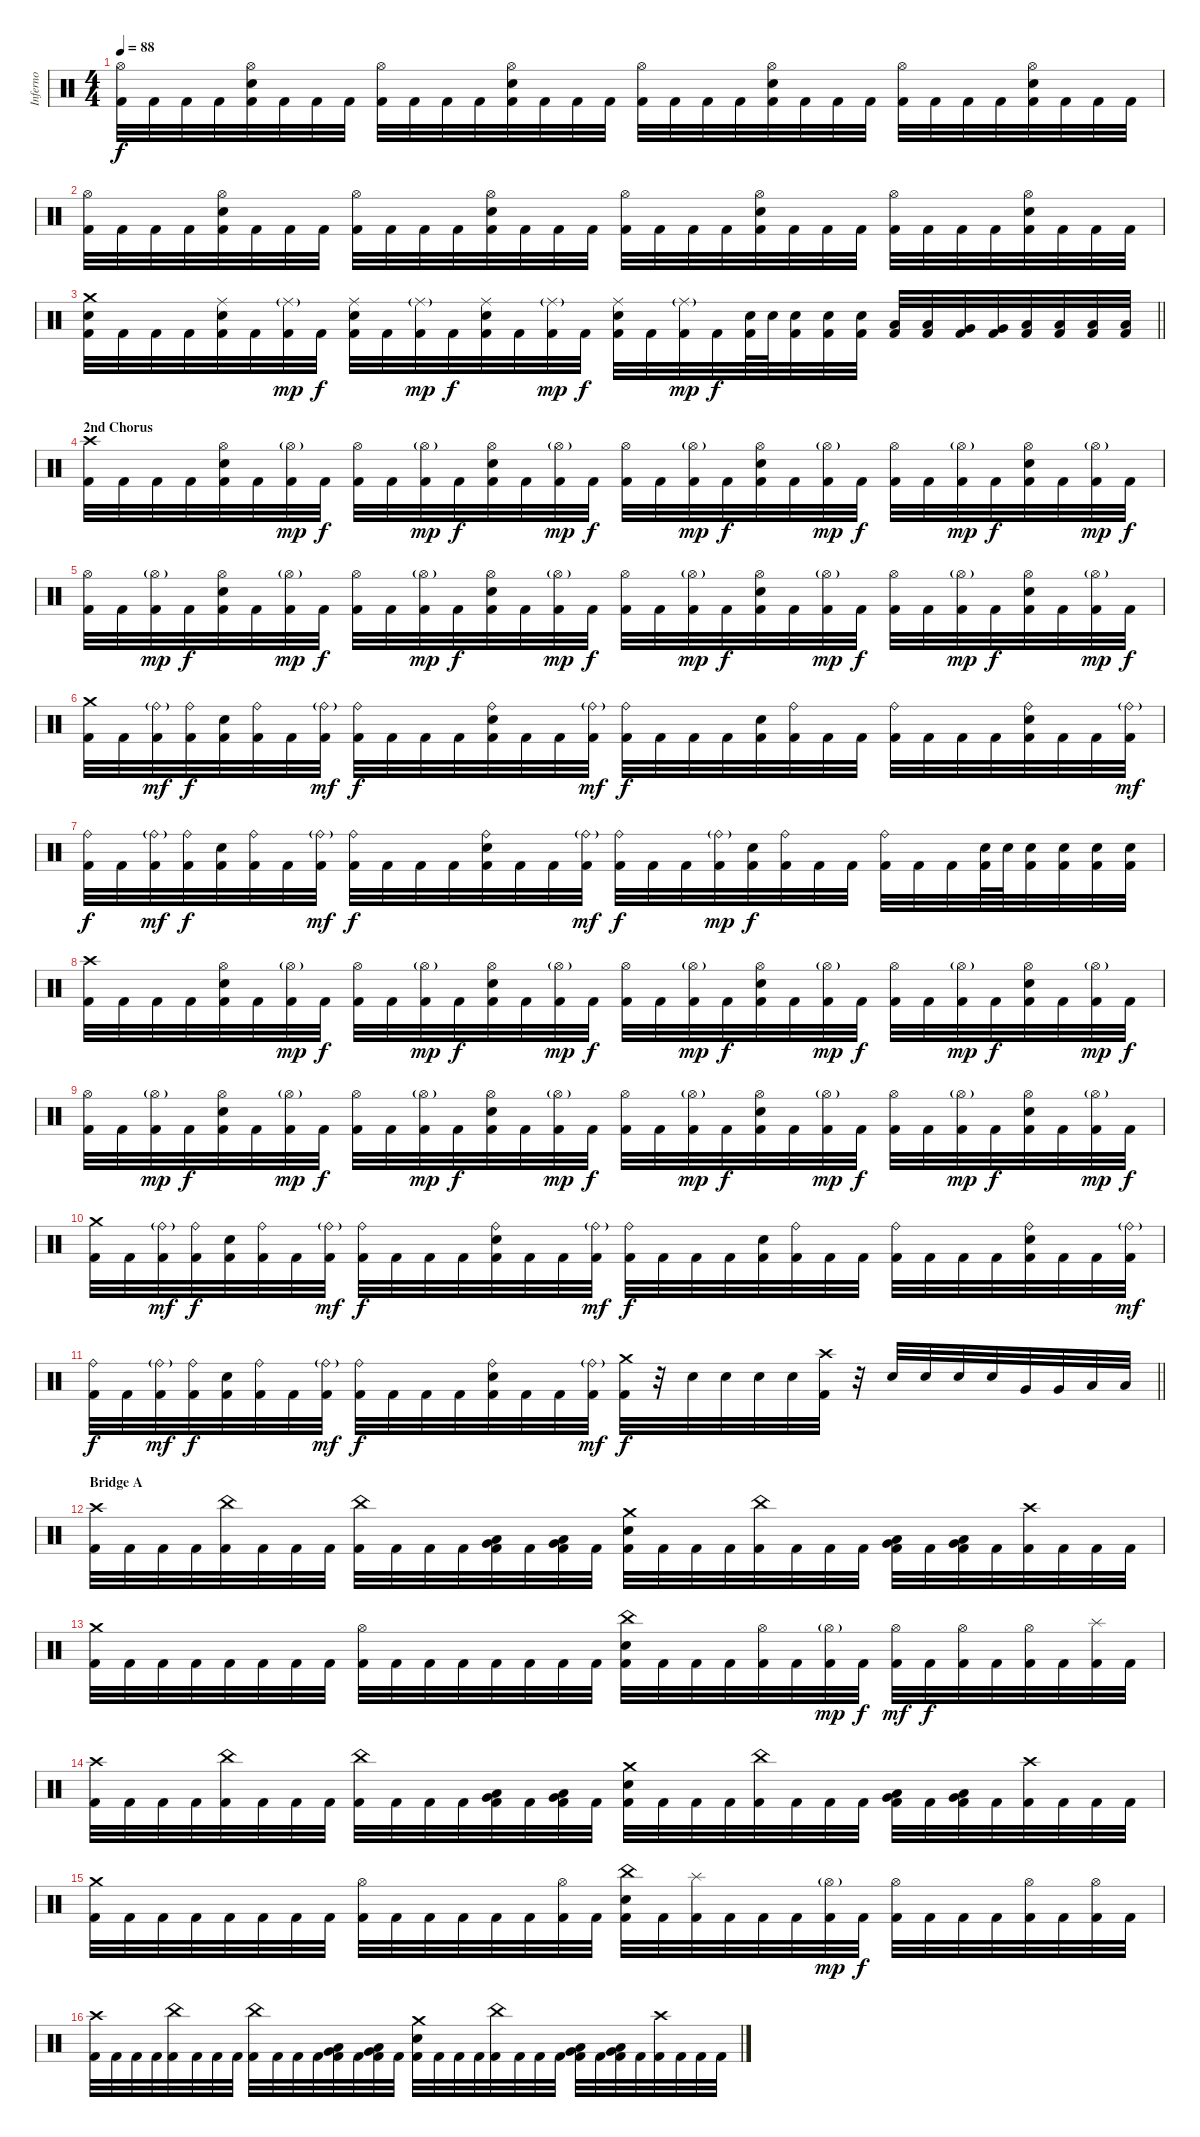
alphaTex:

\track ("Inferno" "Inferno") {instrument percussion}
\staff {score}
\articulation defaults
\ts (4 4)
\tempo 88
\clef neutral
\ks c
("Hi-Hat (open)" "Kick (hit) 2").32{dy f} "Kick (hit) 2".32 "Kick (hit) 2".32 "Kick (hit) 2".32 ("Hi-Hat (open)" "Snare (hit) 2" "Kick (hit) 2").32 "Kick (hit) 2".32 "Kick (hit) 2".32 "Kick (hit) 2".32 ("Hi-Hat (open)" "Kick (hit) 2").32 "Kick (hit) 2".32 "Kick (hit) 2".32 "Kick (hit) 2".32 ("Hi-Hat (open)" "Snare (hit) 2" "Kick (hit) 2").32 "Kick (hit) 2".32 "Kick (hit) 2".32 "Kick (hit) 2".32 ("Hi-Hat (open)" "Kick (hit) 2").32 "Kick (hit) 2".32 "Kick (hit) 2".32 "Kick (hit) 2".32 ("Hi-Hat (open)" "Snare (hit) 2" "Kick (hit) 2").32 "Kick (hit) 2".32 "Kick (hit) 2".32 "Kick (hit) 2".32 ("Hi-Hat (open)" "Kick (hit) 2").32 "Kick (hit) 2".32 "Kick (hit) 2".32 "Kick (hit) 2".32 ("Hi-Hat (open)" "Snare (hit) 2" "Kick (hit) 2").32 "Kick (hit) 2".32 "Kick (hit) 2".32 "Kick (hit) 2".32 |
("Hi-Hat (open)" "Kick (hit) 2").32 "Kick (hit) 2".32 "Kick (hit) 2".32 "Kick (hit) 2".32 ("Hi-Hat (open)" "Snare (hit) 2" "Kick (hit) 2").32 "Kick (hit) 2".32 "Kick (hit) 2".32 "Kick (hit) 2".32 ("Hi-Hat (open)" "Kick (hit) 2").32 "Kick (hit) 2".32 "Kick (hit) 2".32 "Kick (hit) 2".32 ("Hi-Hat (open)" "Snare (hit) 2" "Kick (hit) 2").32 "Kick (hit) 2".32 "Kick (hit) 2".32 "Kick (hit) 2".32 ("Hi-Hat (open)" "Kick (hit) 2").32 "Kick (hit) 2".32 "Kick (hit) 2".32 "Kick (hit) 2".32 ("Hi-Hat (open)" "Snare (hit) 2" "Kick (hit) 2").32 "Kick (hit) 2".32 "Kick (hit) 2".32 "Kick (hit) 2".32 ("Hi-Hat (open)" "Kick (hit) 2").32 "Kick (hit) 2".32 "Kick (hit) 2".32 "Kick (hit) 2".32 ("Hi-Hat (open)" "Snare (hit) 2" "Kick (hit) 2").32 "Kick (hit) 2".32 "Kick (hit) 2".32 "Kick (hit) 2".32 |
\barLineRight lightlight
("Crash medium (hit)" "Snare (hit) 2" "Kick (hit) 2").32 "Kick (hit) 2".32 "Kick (hit) 2".32 "Kick (hit) 2".32 ("Ride (middle)" "Snare (hit) 2" "Kick (hit) 2").32 "Kick (hit) 2".32 ("Ride (middle)"{g} "Kick (hit) 2").32{dy mp} "Kick (hit) 2".32{dy f} ("Ride (middle)" "Snare (hit) 2" "Kick (hit) 2").32 "Kick (hit) 2".32 ("Ride (middle)"{g} "Kick (hit) 2").32{dy mp} "Kick (hit) 2".32{dy f} ("Ride (middle)" "Snare (hit) 2" "Kick (hit) 2").32 "Kick (hit) 2".32 ("Ride (middle)"{g} "Kick (hit) 2").32{dy mp} "Kick (hit) 2".32{dy f} ("Ride (middle)" "Snare (hit) 2" "Kick (hit) 2").32 "Kick (hit) 2".32 ("Ride (middle)"{g} "Kick (hit) 2").32{dy mp} "Kick (hit) 2".32{dy f} ("Snare (hit) 2" "Kick (hit) 2").64 "Snare (hit) 2".64 ("Snare (hit) 2" "Kick (hit) 2").32 ("Snare (hit) 2" "Kick (hit) 2").32 ("Snare (hit) 2" "Kick (hit) 2").32 ("Low Tom (hit)" "Kick (hit) 2").32 ("Low Tom (hit)" "Kick (hit) 2").32 ("Very Low Tom (hit)" "Kick (hit) 2").32 ("Very Low Tom (hit)" "Kick (hit) 2").32 ("Low Floor Tom (hit)" "Kick (hit) 2").32 ("Low Floor Tom (hit)" "Kick (hit) 2").32 ("Low Floor Tom (hit)" "Kick (hit) 2").32 ("Low Floor Tom (hit)" "Kick (hit) 2").32 |
\section ("" "2nd Chorus")
("Crash high (hit)" "Kick (hit) 2").32 "Kick (hit) 2".32 "Kick (hit) 2".32 "Kick (hit) 2".32 ("Hi-Hat (open)" "Snare (hit) 2" "Kick (hit) 2").32 "Kick (hit) 2".32 ("Hi-Hat (open)"{g} "Kick (hit) 2").32{dy mp} "Kick (hit) 2".32{dy f} ("Hi-Hat (open)" "Kick (hit) 2").32 "Kick (hit) 2".32 ("Hi-Hat (open)"{g} "Kick (hit) 2").32{dy mp} "Kick (hit) 2".32{dy f} ("Hi-Hat (open)" "Snare (hit) 2" "Kick (hit) 2").32 "Kick (hit) 2".32 ("Hi-Hat (open)"{g} "Kick (hit) 2").32{dy mp} "Kick (hit) 2".32{dy f} ("Hi-Hat (open)" "Kick (hit) 2").32 "Kick (hit) 2".32 ("Hi-Hat (open)"{g} "Kick (hit) 2").32{dy mp} "Kick (hit) 2".32{dy f} ("Hi-Hat (open)" "Snare (hit) 2" "Kick (hit) 2").32 "Kick (hit) 2".32 ("Hi-Hat (open)"{g} "Kick (hit) 2").32{dy mp} "Kick (hit) 2".32{dy f} ("Hi-Hat (open)" "Kick (hit) 2").32 "Kick (hit) 2".32 ("Hi-Hat (open)"{g} "Kick (hit) 2").32{dy mp} "Kick (hit) 2".32{dy f} ("Hi-Hat (open)" "Snare (hit) 2" "Kick (hit) 2").32 "Kick (hit) 2".32 ("Hi-Hat (open)"{g} "Kick (hit) 2").32{dy mp} "Kick (hit) 2".32{dy f} |
("Hi-Hat (open)" "Kick (hit) 2").32 "Kick (hit) 2".32 ("Hi-Hat (open)"{g} "Kick (hit) 2").32{dy mp} "Kick (hit) 2".32{dy f} ("Hi-Hat (open)" "Snare (hit) 2" "Kick (hit) 2").32 "Kick (hit) 2".32 ("Hi-Hat (open)"{g} "Kick (hit) 2").32{dy mp} "Kick (hit) 2".32{dy f} ("Hi-Hat (open)" "Kick (hit) 2").32 "Kick (hit) 2".32 ("Hi-Hat (open)"{g} "Kick (hit) 2").32{dy mp} "Kick (hit) 2".32{dy f} ("Hi-Hat (open)" "Snare (hit) 2" "Kick (hit) 2").32 "Kick (hit) 2".32 ("Hi-Hat (open)"{g} "Kick (hit) 2").32{dy mp} "Kick (hit) 2".32{dy f} ("Hi-Hat (open)" "Kick (hit) 2").32 "Kick (hit) 2".32 ("Hi-Hat (open)"{g} "Kick (hit) 2").32{dy mp} "Kick (hit) 2".32{dy f} ("Hi-Hat (open)" "Snare (hit) 2" "Kick (hit) 2").32 "Kick (hit) 2".32 ("Hi-Hat (open)"{g} "Kick (hit) 2").32{dy mp} "Kick (hit) 2".32{dy f} ("Hi-Hat (open)" "Kick (hit) 2").32 "Kick (hit) 2".32 ("Hi-Hat (open)"{g} "Kick (hit) 2").32{dy mp} "Kick (hit) 2".32{dy f} ("Hi-Hat (open)" "Snare (hit) 2" "Kick (hit) 2").32 "Kick (hit) 2".32 ("Hi-Hat (open)"{g} "Kick (hit) 2").32{dy mp} "Kick (hit) 2".32{dy f} |
("Crash medium (hit)" "Kick (hit) 2").32 "Kick (hit) 2".32 ("Ride (bell)"{g} "Kick (hit) 2").32{dy mf} ("Ride (bell)" "Kick (hit) 2").32{dy f} ("Snare (hit) 2" "Kick (hit) 2").32 ("Ride (bell)" "Kick (hit) 2").32 "Kick (hit) 2".32 ("Ride (bell)"{g} "Kick (hit) 2").32{dy mf} ("Ride (bell)" "Kick (hit) 2").32{dy f} "Kick (hit) 2".32 "Kick (hit) 2".32 "Kick (hit) 2".32 ("Ride (bell)" "Snare (hit) 2" "Kick (hit) 2").32 "Kick (hit) 2".32 "Kick (hit) 2".32 ("Ride (bell)"{g} "Kick (hit) 2").32{dy mf} ("Ride (bell)" "Kick (hit) 2").32{dy f} "Kick (hit) 2".32 "Kick (hit) 2".32 "Kick (hit) 2".32 ("Snare (hit) 2" "Kick (hit) 2").32 ("Ride (bell)" "Kick (hit) 2").32 "Kick (hit) 2".32 "Kick (hit) 2".32 ("Ride (bell)" "Kick (hit) 2").32 "Kick (hit) 2".32 "Kick (hit) 2".32 "Kick (hit) 2".32 ("Ride (bell)" "Snare (hit) 2" "Kick (hit) 2").32 "Kick (hit) 2".32 "Kick (hit) 2".32 ("Ride (bell)"{g} "Kick (hit) 2").32{dy mf} |
("Ride (bell)" "Kick (hit) 2").32{dy f} "Kick (hit) 2".32 ("Ride (bell)"{g} "Kick (hit) 2").32{dy mf} ("Ride (bell)" "Kick (hit) 2").32{dy f} ("Snare (hit) 2" "Kick (hit) 2").32 ("Ride (bell)" "Kick (hit) 2").32 "Kick (hit) 2".32 ("Ride (bell)"{g} "Kick (hit) 2").32{dy mf} ("Ride (bell)" "Kick (hit) 2").32{dy f} "Kick (hit) 2".32 "Kick (hit) 2".32 "Kick (hit) 2".32 ("Ride (bell)" "Snare (hit) 2" "Kick (hit) 2").32 "Kick (hit) 2".32 "Kick (hit) 2".32 ("Ride (bell)"{g} "Kick (hit) 2").32{dy mf} ("Ride (bell)" "Kick (hit) 2").32{dy f} "Kick (hit) 2".32 "Kick (hit) 2".32 ("Ride (bell)"{g} "Kick (hit) 2").32{dy mp} ("Snare (hit) 2" "Kick (hit) 2").32{dy f} ("Ride (bell)" "Kick (hit) 2").32 "Kick (hit) 2".32 "Kick (hit) 2".32 ("Ride (bell)" "Kick (hit) 2").32 "Kick (hit) 2".32 "Kick (hit) 2".32 ("Snare (hit) 2" "Kick (hit) 2").64 "Snare (hit) 2".64 ("Snare (hit) 2" "Kick (hit) 2").32 ("Snare (hit) 2" "Kick (hit) 2").32 ("Snare (hit) 2" "Kick (hit) 2").32 ("Snare (hit) 2" "Kick (hit) 2").32 |
("Crash high (hit)" "Kick (hit) 2").32 "Kick (hit) 2".32 "Kick (hit) 2".32 "Kick (hit) 2".32 ("Hi-Hat (open)" "Snare (hit) 2" "Kick (hit) 2").32 "Kick (hit) 2".32 ("Hi-Hat (open)"{g} "Kick (hit) 2").32{dy mp} "Kick (hit) 2".32{dy f} ("Hi-Hat (open)" "Kick (hit) 2").32 "Kick (hit) 2".32 ("Hi-Hat (open)"{g} "Kick (hit) 2").32{dy mp} "Kick (hit) 2".32{dy f} ("Hi-Hat (open)" "Snare (hit) 2" "Kick (hit) 2").32 "Kick (hit) 2".32 ("Hi-Hat (open)"{g} "Kick (hit) 2").32{dy mp} "Kick (hit) 2".32{dy f} ("Hi-Hat (open)" "Kick (hit) 2").32 "Kick (hit) 2".32 ("Hi-Hat (open)"{g} "Kick (hit) 2").32{dy mp} "Kick (hit) 2".32{dy f} ("Hi-Hat (open)" "Snare (hit) 2" "Kick (hit) 2").32 "Kick (hit) 2".32 ("Hi-Hat (open)"{g} "Kick (hit) 2").32{dy mp} "Kick (hit) 2".32{dy f} ("Hi-Hat (open)" "Kick (hit) 2").32 "Kick (hit) 2".32 ("Hi-Hat (open)"{g} "Kick (hit) 2").32{dy mp} "Kick (hit) 2".32{dy f} ("Hi-Hat (open)" "Snare (hit) 2" "Kick (hit) 2").32 "Kick (hit) 2".32 ("Hi-Hat (open)"{g} "Kick (hit) 2").32{dy mp} "Kick (hit) 2".32{dy f} |
("Hi-Hat (open)" "Kick (hit) 2").32 "Kick (hit) 2".32 ("Hi-Hat (open)"{g} "Kick (hit) 2").32{dy mp} "Kick (hit) 2".32{dy f} ("Hi-Hat (open)" "Snare (hit) 2" "Kick (hit) 2").32 "Kick (hit) 2".32 ("Hi-Hat (open)"{g} "Kick (hit) 2").32{dy mp} "Kick (hit) 2".32{dy f} ("Hi-Hat (open)" "Kick (hit) 2").32 "Kick (hit) 2".32 ("Hi-Hat (open)"{g} "Kick (hit) 2").32{dy mp} "Kick (hit) 2".32{dy f} ("Hi-Hat (open)" "Snare (hit) 2" "Kick (hit) 2").32 "Kick (hit) 2".32 ("Hi-Hat (open)"{g} "Kick (hit) 2").32{dy mp} "Kick (hit) 2".32{dy f} ("Hi-Hat (open)" "Kick (hit) 2").32 "Kick (hit) 2".32 ("Hi-Hat (open)"{g} "Kick (hit) 2").32{dy mp} "Kick (hit) 2".32{dy f} ("Hi-Hat (open)" "Snare (hit) 2" "Kick (hit) 2").32 "Kick (hit) 2".32 ("Hi-Hat (open)"{g} "Kick (hit) 2").32{dy mp} "Kick (hit) 2".32{dy f} ("Hi-Hat (open)" "Kick (hit) 2").32 "Kick (hit) 2".32 ("Hi-Hat (open)"{g} "Kick (hit) 2").32{dy mp} "Kick (hit) 2".32{dy f} ("Hi-Hat (open)" "Snare (hit) 2" "Kick (hit) 2").32 "Kick (hit) 2".32 ("Hi-Hat (open)"{g} "Kick (hit) 2").32{dy mp} "Kick (hit) 2".32{dy f} |
("Crash medium (hit)" "Kick (hit) 2").32 "Kick (hit) 2".32 ("Ride (bell)"{g} "Kick (hit) 2").32{dy mf} ("Ride (bell)" "Kick (hit) 2").32{dy f} ("Snare (hit) 2" "Kick (hit) 2").32 ("Ride (bell)" "Kick (hit) 2").32 "Kick (hit) 2".32 ("Ride (bell)"{g} "Kick (hit) 2").32{dy mf} ("Ride (bell)" "Kick (hit) 2").32{dy f} "Kick (hit) 2".32 "Kick (hit) 2".32 "Kick (hit) 2".32 ("Ride (bell)" "Snare (hit) 2" "Kick (hit) 2").32 "Kick (hit) 2".32 "Kick (hit) 2".32 ("Ride (bell)"{g} "Kick (hit) 2").32{dy mf} ("Ride (bell)" "Kick (hit) 2").32{dy f} "Kick (hit) 2".32 "Kick (hit) 2".32 "Kick (hit) 2".32 ("Snare (hit) 2" "Kick (hit) 2").32 ("Ride (bell)" "Kick (hit) 2").32 "Kick (hit) 2".32 "Kick (hit) 2".32 ("Ride (bell)" "Kick (hit) 2").32 "Kick (hit) 2".32 "Kick (hit) 2".32 "Kick (hit) 2".32 ("Ride (bell)" "Snare (hit) 2" "Kick (hit) 2").32 "Kick (hit) 2".32 "Kick (hit) 2".32 ("Ride (bell)"{g} "Kick (hit) 2").32{dy mf} |
\barLineRight lightlight
("Ride (bell)" "Kick (hit) 2").32{dy f} "Kick (hit) 2".32 ("Ride (bell)"{g} "Kick (hit) 2").32{dy mf} ("Ride (bell)" "Kick (hit) 2").32{dy f} ("Snare (hit) 2" "Kick (hit) 2").32 ("Ride (bell)" "Kick (hit) 2").32 "Kick (hit) 2".32 ("Ride (bell)"{g} "Kick (hit) 2").32{dy mf} ("Ride (bell)" "Kick (hit) 2").32{dy f} "Kick (hit) 2".32 "Kick (hit) 2".32 "Kick (hit) 2".32 ("Ride (bell)" "Snare (hit) 2" "Kick (hit) 2").32 "Kick (hit) 2".32 "Kick (hit) 2".32 ("Ride (bell)"{g} "Kick (hit) 2").32{dy mf} ("Crash medium (hit)" "Kick (hit) 2").32{dy f} r.32 "Snare (hit) 2".32 "Snare (hit) 2".32 "Snare (hit) 2".32 "Snare (hit) 2".32 ("Crash high (hit)" "Kick (hit) 2").32 r.32 "Snare (hit) 2".32 "Snare (hit) 2".32 "Snare (hit) 2".32 "Snare (hit) 2".32 "Very Low Tom (hit)".32 "Very Low Tom (hit)".32 "Low Floor Tom (hit)".32 "Low Floor Tom (hit)".32 |
\section ("" "Bridge A")
("Crash high (hit)" "Kick (hit) 2").32 "Kick (hit) 2".32 "Kick (hit) 2".32 "Kick (hit) 2".32 ("China (hit)" "Kick (hit) 2").32 "Kick (hit) 2".32 "Kick (hit) 2".32 "Kick (hit) 2".32 ("China (hit)" "Kick (hit) 2").32 "Kick (hit) 2".32 "Kick (hit) 2".32 "Kick (hit) 2".32 ("Low Tom (hit)" "Very Low Tom (hit)" "Kick (hit) 2").32 "Kick (hit) 2".32 ("Low Tom (hit)" "Very Low Tom (hit)" "Kick (hit) 2").32 "Kick (hit) 2".32 ("Crash medium (hit)" "Snare (hit) 2" "Kick (hit) 2").32 "Kick (hit) 2".32 "Kick (hit) 2".32 "Kick (hit) 2".32 ("China (hit)" "Kick (hit) 2").32 "Kick (hit) 2".32 "Kick (hit) 2".32 "Kick (hit) 2".32 ("Very Low Tom (hit)" "Low Floor Tom (hit)" "Kick (hit) 2").32 "Kick (hit) 2".32 ("Very Low Tom (hit)" "Low Floor Tom (hit)" "Kick (hit) 2").32 "Kick (hit) 2".32 ("Crash high (hit)" "Kick (hit) 2").32 "Kick (hit) 2".32 "Kick (hit) 2".32 "Kick (hit) 2".32 |
("Crash medium (hit)" "Kick (hit) 2").32 "Kick (hit) 2".32 "Kick (hit) 2".32 "Kick (hit) 2".32 "Kick (hit) 2".32 "Kick (hit) 2".32 "Kick (hit) 2".32 "Kick (hit) 2".32 ("Hi-Hat (open)" "Kick (hit) 2").32 "Kick (hit) 2".32 "Kick (hit) 2".32 "Kick (hit) 2".32 "Kick (hit) 2".32 "Kick (hit) 2".32 "Kick (hit) 2".32 "Kick (hit) 2".32 ("China (hit)" "Snare (hit) 2" "Kick (hit) 2").32 "Kick (hit) 2".32 "Kick (hit) 2".32 "Kick (hit) 2".32 ("Hi-Hat (open)" "Kick (hit) 2").32 "Kick (hit) 2".32 ("Hi-Hat (open)"{g} "Kick (hit) 2").32{dy mp} "Kick (hit) 2".32{dy f} ("Hi-Hat (open)" "Kick (hit) 2").32{dy mf} "Kick (hit) 2".32{dy f} ("Hi-Hat (open)" "Kick (hit) 2").32 "Kick (hit) 2".32 ("Hi-Hat (open)" "Kick (hit) 2").32 "Kick (hit) 2".32 ("Splash (hit)" "Kick (hit) 2").32 "Kick (hit) 2".32 |
("Crash high (hit)" "Kick (hit) 2").32 "Kick (hit) 2".32 "Kick (hit) 2".32 "Kick (hit) 2".32 ("China (hit)" "Kick (hit) 2").32 "Kick (hit) 2".32 "Kick (hit) 2".32 "Kick (hit) 2".32 ("China (hit)" "Kick (hit) 2").32 "Kick (hit) 2".32 "Kick (hit) 2".32 "Kick (hit) 2".32 ("Low Tom (hit)" "Very Low Tom (hit)" "Kick (hit) 2").32 "Kick (hit) 2".32 ("Low Tom (hit)" "Very Low Tom (hit)" "Kick (hit) 2").32 "Kick (hit) 2".32 ("Crash medium (hit)" "Snare (hit) 2" "Kick (hit) 2").32 "Kick (hit) 2".32 "Kick (hit) 2".32 "Kick (hit) 2".32 ("China (hit)" "Kick (hit) 2").32 "Kick (hit) 2".32 "Kick (hit) 2".32 "Kick (hit) 2".32 ("Very Low Tom (hit)" "Low Floor Tom (hit)" "Kick (hit) 2").32 "Kick (hit) 2".32 ("Very Low Tom (hit)" "Low Floor Tom (hit)" "Kick (hit) 2").32 "Kick (hit) 2".32 ("Crash high (hit)" "Kick (hit) 2").32 "Kick (hit) 2".32 "Kick (hit) 2".32 "Kick (hit) 2".32 |
("Crash medium (hit)" "Kick (hit) 2").32 "Kick (hit) 2".32 "Kick (hit) 2".32 "Kick (hit) 2".32 "Kick (hit) 2".32 "Kick (hit) 2".32 "Kick (hit) 2".32 "Kick (hit) 2".32 ("Hi-Hat (open)" "Kick (hit) 2").32 "Kick (hit) 2".32 "Kick (hit) 2".32 "Kick (hit) 2".32 "Kick (hit) 2".32 "Kick (hit) 2".32 ("Hi-Hat (open)" "Kick (hit) 2").32 "Kick (hit) 2".32 ("China (hit)" "Snare (hit) 2" "Kick (hit) 2").32 "Kick (hit) 2".32 ("Splash (hit)" "Kick (hit) 2").32 "Kick (hit) 2".32 "Kick (hit) 2".32 "Kick (hit) 2".32 ("Hi-Hat (open)"{g} "Kick (hit) 2").32{dy mp} "Kick (hit) 2".32{dy f} ("Hi-Hat (open)" "Kick (hit) 2").32 "Kick (hit) 2".32 "Kick (hit) 2".32 "Kick (hit) 2".32 ("Hi-Hat (open)" "Kick (hit) 2").32 "Kick (hit) 2".32 ("Hi-Hat (open)" "Kick (hit) 2").32 "Kick (hit) 2".32 |
("Crash high (hit)" "Kick (hit) 2").32 "Kick (hit) 2".32 "Kick (hit) 2".32 "Kick (hit) 2".32 ("China (hit)" "Kick (hit) 2").32 "Kick (hit) 2".32 "Kick (hit) 2".32 "Kick (hit) 2".32 ("China (hit)" "Kick (hit) 2").32 "Kick (hit) 2".32 "Kick (hit) 2".32 "Kick (hit) 2".32 ("Low Tom (hit)" "Very Low Tom (hit)" "Kick (hit) 2").32 "Kick (hit) 2".32 ("Low Tom (hit)" "Very Low Tom (hit)" "Kick (hit) 2").32 "Kick (hit) 2".32 ("Crash medium (hit)" "Snare (hit) 2" "Kick (hit) 2").32 "Kick (hit) 2".32 "Kick (hit) 2".32 "Kick (hit) 2".32 ("China (hit)" "Kick (hit) 2").32 "Kick (hit) 2".32 "Kick (hit) 2".32 "Kick (hit) 2".32 ("Very Low Tom (hit)" "Low Floor Tom (hit)" "Kick (hit) 2").32 "Kick (hit) 2".32 ("Very Low Tom (hit)" "Low Floor Tom (hit)" "Kick (hit) 2").32 "Kick (hit) 2".32 ("Crash high (hit)" "Kick (hit) 2").32 "Kick (hit) 2".32 "Kick (hit) 2".32 "Kick (hit) 2".32
